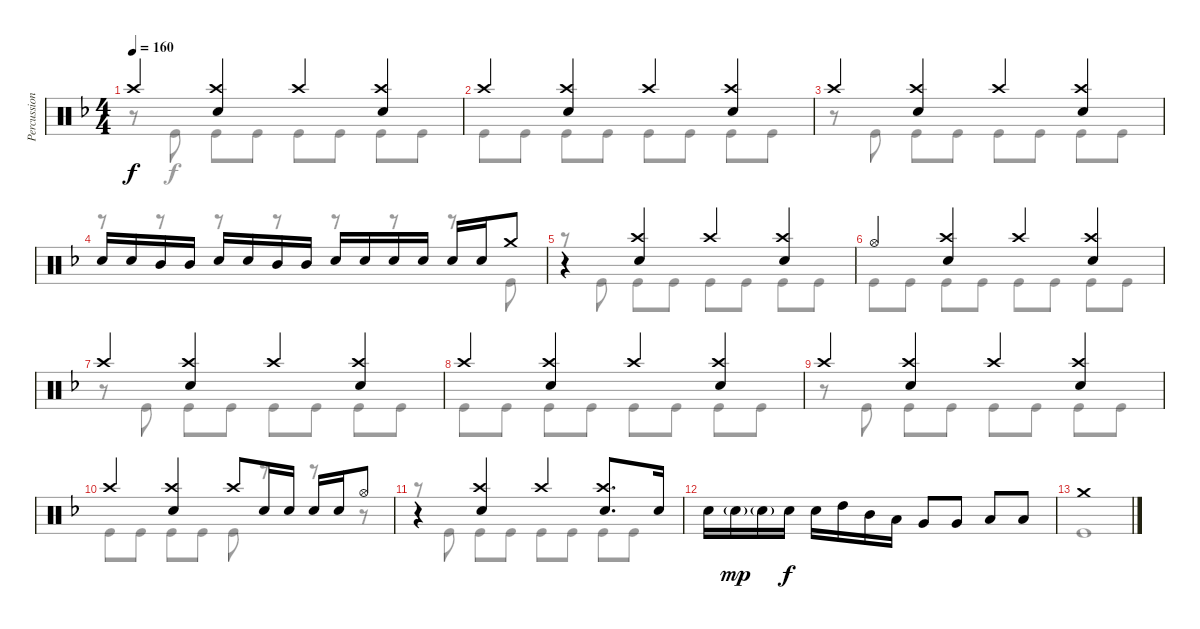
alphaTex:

\track ("Percussion" "Percussion") {instrument percussion}
\staff {score}
\articulation defaults
\voice
\ts (4 4)
\tempo 160
\clef neutral
\ks dminor "Crash high (hit)".4{dy f}
("Crash high (hit)" "Snare (hit) 2").4 "Crash high (hit)".4 ("Crash high (hit)" "Snare (hit) 2").4 |
"Crash high (hit)".4 ("Crash high (hit)" "Snare (hit) 2").4 "Crash high (hit)".4 ("Crash high (hit)" "Snare (hit) 2").4 |
"Crash high (hit)".4 ("Crash high (hit)" "Snare (hit) 2").4 "Crash high (hit)".4 ("Crash high (hit)" "Snare (hit) 2").4 |
"Snare (hit) 2".16 "Snare (hit) 2".16 "Mid Tom (hit)".16 "Mid Tom (hit)".16 "Snare (hit) 2".16 "Snare (hit) 2".16 "Mid Tom (hit)".16 "Mid Tom (hit)".16 "Snare (hit) 2".16 "Snare (hit) 2".16 "Snare (hit) 2".16 "Snare (hit) 2".16 "Snare (hit) 2".16 "Snare (hit) 2".16 "Crash medium (hit)".8 |
r.4 ("Crash high (hit)" "Snare (hit) 2").4 "Crash high (hit)".4 ("Crash high (hit)" "Snare (hit) 2").4 |
"Hi-Hat (open)".4 ("Crash high (hit)" "Snare (hit) 2").4 "Crash high (hit)".4 ("Crash high (hit)" "Snare (hit) 2").4 |
"Crash high (hit)".4 ("Crash high (hit)" "Snare (hit) 2").4 "Crash high (hit)".4 ("Crash high (hit)" "Snare (hit) 2").4 |
"Crash high (hit)".4 ("Crash high (hit)" "Snare (hit) 2").4 "Crash high (hit)".4 ("Crash high (hit)" "Snare (hit) 2").4 |
"Crash high (hit)".4 ("Crash high (hit)" "Snare (hit) 2").4 "Crash high (hit)".4 ("Crash high (hit)" "Snare (hit) 2").4 |
"Crash high (hit)".4 ("Crash high (hit)" "Snare (hit) 2").4 "Crash high (hit)".8 "Snare (hit) 2".16 "Snare (hit) 2".16 "Snare (hit) 2".16 "Snare (hit) 2".16 "Hi-Hat (open)".8 |
r.4 ("Crash high (hit)" "Snare (hit) 2").4 "Crash high (hit)".4 ("Crash high (hit)" "Snare (hit) 2").8{d} "Snare (hit) 2".16 |
"Snare (hit) 2".16 "Snare (hit) 2"{g}.16{dy mp} "Snare (hit) 2"{g}.16 "Snare (hit) 2".16{dy f} "Snare (hit) 2".16 "High Tom (hit)".16 "Mid Tom (hit)".16 "Low Tom (hit)".16 "Very Low Tom (hit)".8 "Very Low Tom (hit)".8 "Low Floor Tom (hit)".8 "Low Floor Tom (hit)".8 |
"Crash medium (hit)".1 |
|
|
\voice
\clef neutral
\ottava regular
\simile none
\ks dminor
r.8{dy f} "Kick (hit)".8 "Kick (hit)".8 "Kick (hit)".8 "Kick (hit)".8 "Kick (hit)".8 "Kick (hit)".8 "Kick (hit)".8 |
"Kick (hit)".8 "Kick (hit)".8 "Kick (hit)".8 "Kick (hit)".8 "Kick (hit)".8 "Kick (hit)".8 "Kick (hit)".8 "Kick (hit)".8 |
r.8 "Kick (hit)".8 "Kick (hit)".8 "Kick (hit)".8 "Kick (hit)".8 "Kick (hit)".8 "Kick (hit)".8 "Kick (hit)".8 |
r.8 r.8 r.8 r.8 r.8 r.8 r.8 "Kick (hit)".8 |
r.8 "Kick (hit)".8 "Kick (hit)".8 "Kick (hit)".8 "Kick (hit)".8 "Kick (hit)".8 "Kick (hit)".8 "Kick (hit)".8 |
"Kick (hit)".8 "Kick (hit)".8 "Kick (hit)".8 "Kick (hit)".8 "Kick (hit)".8 "Kick (hit)".8 "Kick (hit)".8 "Kick (hit)".8 |
r.8 "Kick (hit)".8 "Kick (hit)".8 "Kick (hit)".8 "Kick (hit)".8 "Kick (hit)".8 "Kick (hit)".8 "Kick (hit)".8 |
"Kick (hit)".8 "Kick (hit)".8 "Kick (hit)".8 "Kick (hit)".8 "Kick (hit)".8 "Kick (hit)".8 "Kick (hit)".8 "Kick (hit)".8 |
r.8 "Kick (hit)".8 "Kick (hit)".8 "Kick (hit)".8 "Kick (hit)".8 "Kick (hit)".8 "Kick (hit)".8 "Kick (hit)".8 |
"Kick (hit)".8 "Kick (hit)".8 "Kick (hit)".8 "Kick (hit)".8 "Kick (hit)".8 r.8 r.8 r.8 |
r.8 "Kick (hit)".8 "Kick (hit)".8 "Kick (hit)".8 "Kick (hit)".8 "Kick (hit)".8 "Kick (hit)".8 "Kick (hit)".8 |
|
"Kick (hit)".1 |
|
|
